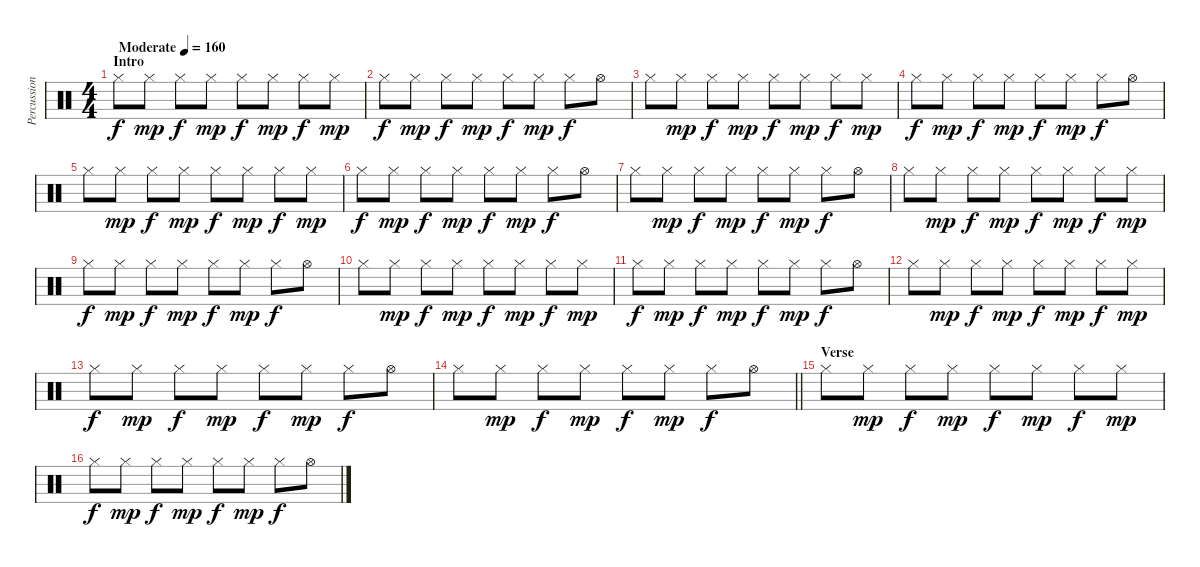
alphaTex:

\track ("Percussion" "Percussion") {instrument percussion}
\staff {score}
\articulation defaults
\ts (4 4)
\section ("" "Intro")
\tempo (160 "Moderate")
\clef neutral
\ks c "Hi-Hat (closed)".8{dy f} "Hi-Hat (closed)".8{dy mp} "Hi-Hat (closed)".8{dy f} "Hi-Hat (closed)".8{dy mp} "Hi-Hat (closed)".8{dy f} "Hi-Hat (closed)".8{dy mp} "Hi-Hat (closed)".8{dy f} "Hi-Hat (closed)".8{dy mp}
|
"Hi-Hat (closed)".8{dy f} "Hi-Hat (closed)".8{dy mp} "Hi-Hat (closed)".8{dy f} "Hi-Hat (closed)".8{dy mp} "Hi-Hat (closed)".8{dy f} "Hi-Hat (closed)".8{dy mp} "Hi-Hat (closed)".8{dy f} "Hi-Hat (open)".8 |
"Hi-Hat (closed)".8 "Hi-Hat (closed)".8{dy mp} "Hi-Hat (closed)".8{dy f} "Hi-Hat (closed)".8{dy mp} "Hi-Hat (closed)".8{dy f} "Hi-Hat (closed)".8{dy mp} "Hi-Hat (closed)".8{dy f} "Hi-Hat (closed)".8{dy mp} |
"Hi-Hat (closed)".8{dy f} "Hi-Hat (closed)".8{dy mp} "Hi-Hat (closed)".8{dy f} "Hi-Hat (closed)".8{dy mp} "Hi-Hat (closed)".8{dy f} "Hi-Hat (closed)".8{dy mp} "Hi-Hat (closed)".8{dy f} "Hi-Hat (open)".8 |
"Hi-Hat (closed)".8 "Hi-Hat (closed)".8{dy mp} "Hi-Hat (closed)".8{dy f} "Hi-Hat (closed)".8{dy mp} "Hi-Hat (closed)".8{dy f} "Hi-Hat (closed)".8{dy mp} "Hi-Hat (closed)".8{dy f} "Hi-Hat (closed)".8{dy mp} |
"Hi-Hat (closed)".8{dy f} "Hi-Hat (closed)".8{dy mp} "Hi-Hat (closed)".8{dy f} "Hi-Hat (closed)".8{dy mp} "Hi-Hat (closed)".8{dy f} "Hi-Hat (closed)".8{dy mp} "Hi-Hat (closed)".8{dy f} "Hi-Hat (open)".8 |
"Hi-Hat (closed)".8 "Hi-Hat (closed)".8{dy mp} "Hi-Hat (closed)".8{dy f} "Hi-Hat (closed)".8{dy mp} "Hi-Hat (closed)".8{dy f} "Hi-Hat (closed)".8{dy mp} "Hi-Hat (closed)".8{dy f} "Hi-Hat (open)".8 |
"Hi-Hat (closed)".8 "Hi-Hat (closed)".8{dy mp} "Hi-Hat (closed)".8{dy f} "Hi-Hat (closed)".8{dy mp} "Hi-Hat (closed)".8{dy f} "Hi-Hat (closed)".8{dy mp} "Hi-Hat (closed)".8{dy f} "Hi-Hat (closed)".8{dy mp} |
"Hi-Hat (closed)".8{dy f} "Hi-Hat (closed)".8{dy mp} "Hi-Hat (closed)".8{dy f} "Hi-Hat (closed)".8{dy mp} "Hi-Hat (closed)".8{dy f} "Hi-Hat (closed)".8{dy mp} "Hi-Hat (closed)".8{dy f} "Hi-Hat (open)".8 |
"Hi-Hat (closed)".8 "Hi-Hat (closed)".8{dy mp} "Hi-Hat (closed)".8{dy f} "Hi-Hat (closed)".8{dy mp} "Hi-Hat (closed)".8{dy f} "Hi-Hat (closed)".8{dy mp} "Hi-Hat (closed)".8{dy f} "Hi-Hat (closed)".8{dy mp} |
"Hi-Hat (closed)".8{dy f} "Hi-Hat (closed)".8{dy mp} "Hi-Hat (closed)".8{dy f} "Hi-Hat (closed)".8{dy mp} "Hi-Hat (closed)".8{dy f} "Hi-Hat (closed)".8{dy mp} "Hi-Hat (closed)".8{dy f} "Hi-Hat (open)".8 |
"Hi-Hat (closed)".8 "Hi-Hat (closed)".8{dy mp} "Hi-Hat (closed)".8{dy f} "Hi-Hat (closed)".8{dy mp} "Hi-Hat (closed)".8{dy f} "Hi-Hat (closed)".8{dy mp} "Hi-Hat (closed)".8{dy f} "Hi-Hat (closed)".8{dy mp} |
"Hi-Hat (closed)".8{dy f} "Hi-Hat (closed)".8{dy mp} "Hi-Hat (closed)".8{dy f} "Hi-Hat (closed)".8{dy mp} "Hi-Hat (closed)".8{dy f} "Hi-Hat (closed)".8{dy mp} "Hi-Hat (closed)".8{dy f} "Hi-Hat (open)".8 |
\barLineRight lightlight "Hi-Hat (closed)".8 "Hi-Hat (closed)".8{dy mp} "Hi-Hat (closed)".8{dy f} "Hi-Hat (closed)".8{dy mp} "Hi-Hat (closed)".8{dy f} "Hi-Hat (closed)".8{dy mp} "Hi-Hat (closed)".8{dy f} "Hi-Hat (open)".8
|
\section ("" "Verse")
"Hi-Hat (closed)".8 "Hi-Hat (closed)".8{dy mp} "Hi-Hat (closed)".8{dy f} "Hi-Hat (closed)".8{dy mp} "Hi-Hat (closed)".8{dy f} "Hi-Hat (closed)".8{dy mp} "Hi-Hat (closed)".8{dy f} "Hi-Hat (closed)".8{dy mp} |
"Hi-Hat (closed)".8{dy f} "Hi-Hat (closed)".8{dy mp} "Hi-Hat (closed)".8{dy f} "Hi-Hat (closed)".8{dy mp} "Hi-Hat (closed)".8{dy f} "Hi-Hat (closed)".8{dy mp} "Hi-Hat (closed)".8{dy f} "Hi-Hat (open)".8
